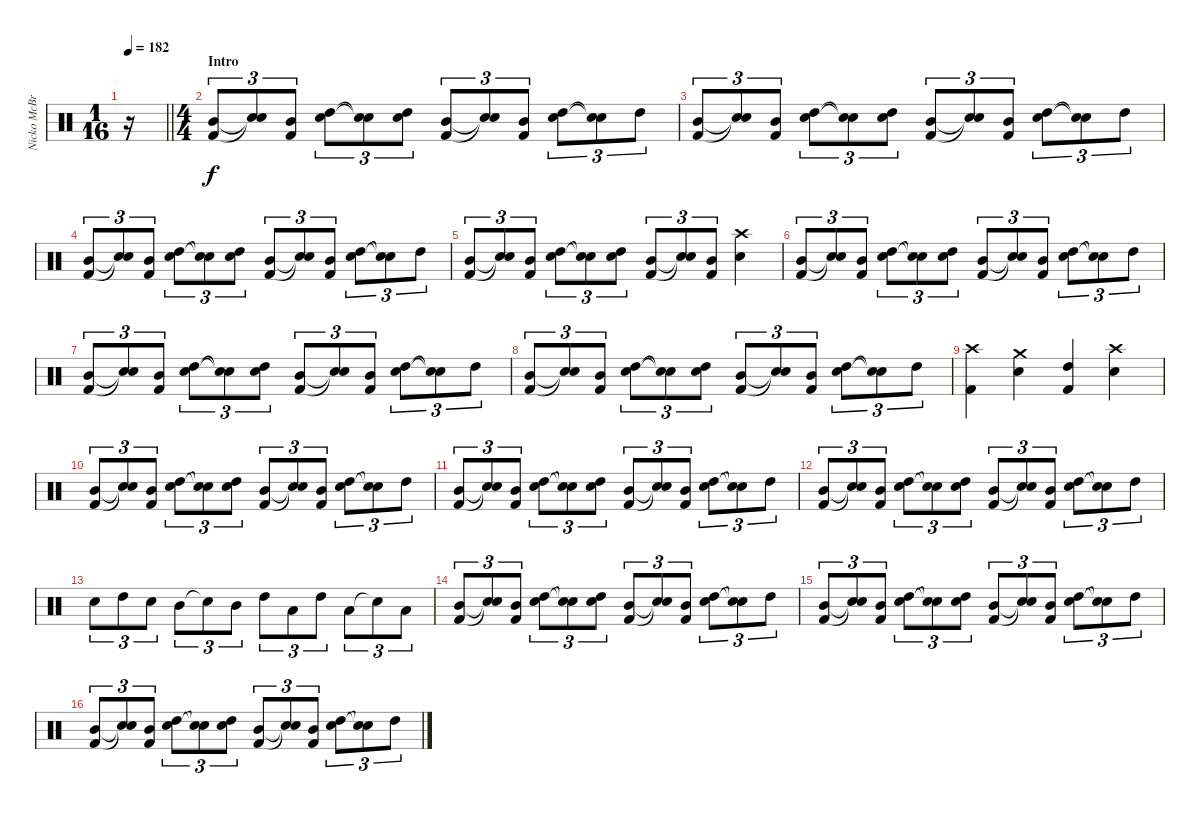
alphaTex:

\track ("Nicko McBrain" "Nicko McBr") {instrument percussion}
\staff {score}
\articulation defaults
\ts (1 16)
\tempo 182
\clef neutral
\barLineRight lightlight
\ks c
r.16{dy f} |
\ts (4 4)
\section ("" "Intro")
("Mid Tom (hit)" "Kick (hit) 2").8{tu (3 2)} ("Snare (hit)"{t} "Snare (hit)"{t}).8{tu (3 2)} ("Mid Tom (hit)" "Kick (hit) 2").8{tu (3 2)} ("High Tom (hit)" "Snare (hit) 2").8{tu (3 2)} ("Snare (hit)"{t} "Snare (hit)"{t}).8{tu (3 2)} ("High Tom (hit)" "Snare (hit) 2").8{tu (3 2)} ("Mid Tom (hit)" "Kick (hit) 2").8{tu (3 2)} ("Snare (hit)"{t} "Snare (hit)"{t}).8{tu (3 2)} ("Mid Tom (hit)" "Kick (hit) 2").8{tu (3 2)} ("High Tom (hit)" "Snare (hit) 2").8{tu (3 2)} ("Snare (hit)"{t} "Snare (hit)"{t}).8{tu (3 2)} "High Tom (hit)".8{tu (3 2)} |
("Mid Tom (hit)" "Kick (hit) 2").8{tu (3 2)} ("Snare (hit)"{t} "Snare (hit)"{t}).8{tu (3 2)} ("Mid Tom (hit)" "Kick (hit) 2").8{tu (3 2)} ("High Tom (hit)" "Snare (hit) 2").8{tu (3 2)} ("Snare (hit)"{t} "Snare (hit)"{t}).8{tu (3 2)} ("High Tom (hit)" "Snare (hit) 2").8{tu (3 2)} ("Mid Tom (hit)" "Kick (hit) 2").8{tu (3 2)} ("Snare (hit)"{t} "Snare (hit)"{t}).8{tu (3 2)} ("Mid Tom (hit)" "Kick (hit) 2").8{tu (3 2)} ("High Tom (hit)" "Snare (hit) 2").8{tu (3 2)} ("Snare (hit)"{t} "Snare (hit)"{t}).8{tu (3 2)} "High Tom (hit)".8{tu (3 2)} |
("Mid Tom (hit)" "Kick (hit) 2").8{tu (3 2)} ("Snare (hit)"{t} "Snare (hit)"{t}).8{tu (3 2)} ("Mid Tom (hit)" "Kick (hit) 2").8{tu (3 2)} ("High Tom (hit)" "Snare (hit) 2").8{tu (3 2)} ("Snare (hit)"{t} "Snare (hit)"{t}).8{tu (3 2)} ("High Tom (hit)" "Snare (hit) 2").8{tu (3 2)} ("Mid Tom (hit)" "Kick (hit) 2").8{tu (3 2)} ("Snare (hit)"{t} "Snare (hit)"{t}).8{tu (3 2)} ("Mid Tom (hit)" "Kick (hit) 2").8{tu (3 2)} ("High Tom (hit)" "Snare (hit) 2").8{tu (3 2)} ("Snare (hit)"{t} "Snare (hit)"{t}).8{tu (3 2)} "High Tom (hit)".8{tu (3 2)} |
("Mid Tom (hit)" "Kick (hit) 2").8{tu (3 2)} ("Snare (hit)"{t} "Snare (hit)"{t}).8{tu (3 2)} ("Mid Tom (hit)" "Kick (hit) 2").8{tu (3 2)} ("High Tom (hit)" "Snare (hit) 2").8{tu (3 2)} ("Snare (hit)"{t} "Snare (hit)"{t}).8{tu (3 2)} ("High Tom (hit)" "Snare (hit) 2").8{tu (3 2)} ("Mid Tom (hit)" "Kick (hit) 2").8{tu (3 2)} ("Snare (hit)"{t} "Snare (hit)"{t}).8{tu (3 2)} ("Mid Tom (hit)" "Kick (hit) 2").8{tu (3 2)} ("Snare (hit) 2" "Crash high (hit)").4 |
("Mid Tom (hit)" "Kick (hit) 2").8{tu (3 2)} ("Snare (hit)"{t} "Snare (hit)"{t}).8{tu (3 2)} ("Mid Tom (hit)" "Kick (hit) 2").8{tu (3 2)} ("High Tom (hit)" "Snare (hit) 2").8{tu (3 2)} ("Snare (hit)"{t} "Snare (hit)"{t}).8{tu (3 2)} ("High Tom (hit)" "Snare (hit) 2").8{tu (3 2)} ("Mid Tom (hit)" "Kick (hit) 2").8{tu (3 2)} ("Snare (hit)"{t} "Snare (hit)"{t}).8{tu (3 2)} ("Mid Tom (hit)" "Kick (hit) 2").8{tu (3 2)} ("High Tom (hit)" "Snare (hit) 2").8{tu (3 2)} ("Snare (hit)"{t} "Snare (hit)"{t}).8{tu (3 2)} "High Tom (hit)".8{tu (3 2)} |
("Mid Tom (hit)" "Kick (hit) 2").8{tu (3 2)} ("Snare (hit)"{t} "Snare (hit)"{t}).8{tu (3 2)} ("Mid Tom (hit)" "Kick (hit) 2").8{tu (3 2)} ("High Tom (hit)" "Snare (hit) 2").8{tu (3 2)} ("Snare (hit)"{t} "Snare (hit)"{t}).8{tu (3 2)} ("High Tom (hit)" "Snare (hit) 2").8{tu (3 2)} ("Mid Tom (hit)" "Kick (hit) 2").8{tu (3 2)} ("Snare (hit)"{t} "Snare (hit)"{t}).8{tu (3 2)} ("Mid Tom (hit)" "Kick (hit) 2").8{tu (3 2)} ("High Tom (hit)" "Snare (hit) 2").8{tu (3 2)} ("Snare (hit)"{t} "Snare (hit)"{t}).8{tu (3 2)} "High Tom (hit)".8{tu (3 2)} |
("Mid Tom (hit)" "Kick (hit) 2").8{tu (3 2)} ("Snare (hit)"{t} "Snare (hit)"{t}).8{tu (3 2)} ("Mid Tom (hit)" "Kick (hit) 2").8{tu (3 2)} ("High Tom (hit)" "Snare (hit) 2").8{tu (3 2)} ("Snare (hit)"{t} "Snare (hit)"{t}).8{tu (3 2)} ("High Tom (hit)" "Snare (hit) 2").8{tu (3 2)} ("Mid Tom (hit)" "Kick (hit) 2").8{tu (3 2)} ("Snare (hit)"{t} "Snare (hit)"{t}).8{tu (3 2)} ("Mid Tom (hit)" "Kick (hit) 2").8{tu (3 2)} ("High Tom (hit)" "Snare (hit) 2").8{tu (3 2)} ("Snare (hit)"{t} "Snare (hit)"{t}).8{tu (3 2)} "High Tom (hit)".8{tu (3 2)} |
("Kick (hit) 2" "Crash high (hit)").4 ("Snare (hit) 2" "Crash medium (hit)").4 ("High Tom (hit)" "Kick (hit) 2").4 ("Snare (hit) 2" "Crash high (hit)").4 |
("Mid Tom (hit)" "Kick (hit) 2").8{tu (3 2)} ("Snare (hit)"{t} "Snare (hit)"{t}).8{tu (3 2)} ("Mid Tom (hit)" "Kick (hit) 2").8{tu (3 2)} ("High Tom (hit)" "Snare (hit) 2").8{tu (3 2)} ("Snare (hit)"{t} "Snare (hit)"{t}).8{tu (3 2)} ("High Tom (hit)" "Snare (hit) 2").8{tu (3 2)} ("Mid Tom (hit)" "Kick (hit) 2").8{tu (3 2)} ("Snare (hit)"{t} "Snare (hit)"{t}).8{tu (3 2)} ("Mid Tom (hit)" "Kick (hit) 2").8{tu (3 2)} ("High Tom (hit)" "Snare (hit) 2").8{tu (3 2)} ("Snare (hit)"{t} "Snare (hit)"{t}).8{tu (3 2)} "High Tom (hit)".8{tu (3 2)} |
("Mid Tom (hit)" "Kick (hit) 2").8{tu (3 2)} ("Snare (hit)"{t} "Snare (hit)"{t}).8{tu (3 2)} ("Mid Tom (hit)" "Kick (hit) 2").8{tu (3 2)} ("High Tom (hit)" "Snare (hit) 2").8{tu (3 2)} ("Snare (hit)"{t} "Snare (hit)"{t}).8{tu (3 2)} ("High Tom (hit)" "Snare (hit) 2").8{tu (3 2)} ("Mid Tom (hit)" "Kick (hit) 2").8{tu (3 2)} ("Snare (hit)"{t} "Snare (hit)"{t}).8{tu (3 2)} ("Mid Tom (hit)" "Kick (hit) 2").8{tu (3 2)} ("High Tom (hit)" "Snare (hit) 2").8{tu (3 2)} ("Snare (hit)"{t} "Snare (hit)"{t}).8{tu (3 2)} "High Tom (hit)".8{tu (3 2)} |
("Mid Tom (hit)" "Kick (hit) 2").8{tu (3 2)} ("Snare (hit)"{t} "Snare (hit)"{t}).8{tu (3 2)} ("Mid Tom (hit)" "Kick (hit) 2").8{tu (3 2)} ("High Tom (hit)" "Snare (hit) 2").8{tu (3 2)} ("Snare (hit)"{t} "Snare (hit)"{t}).8{tu (3 2)} ("High Tom (hit)" "Snare (hit) 2").8{tu (3 2)} ("Mid Tom (hit)" "Kick (hit) 2").8{tu (3 2)} ("Snare (hit)"{t} "Snare (hit)"{t}).8{tu (3 2)} ("Mid Tom (hit)" "Kick (hit) 2").8{tu (3 2)} ("High Tom (hit)" "Snare (hit) 2").8{tu (3 2)} ("Snare (hit)"{t} "Snare (hit)"{t}).8{tu (3 2)} "High Tom (hit)".8{tu (3 2)} |
"Snare (hit) 2".8{tu (3 2)} "High Tom (hit)".8{tu (3 2)} "Snare (hit) 2".8{tu (3 2)} "Mid Tom (hit)".8{tu (3 2)} "Snare (hit)"{t}.8{tu (3 2)} "Mid Tom (hit)".8{tu (3 2)} "High Tom (hit)".8{tu (3 2)} "Low Tom (hit)".8{tu (3 2)} "High Tom (hit)".8{tu (3 2)} "Low Tom (hit)".8{tu (3 2)} "Snare (hit)"{t}.8{tu (3 2)} "Low Tom (hit)".8{tu (3 2)} |
("Mid Tom (hit)" "Kick (hit) 2").8{tu (3 2)} ("Snare (hit)"{t} "Snare (hit)"{t}).8{tu (3 2)} ("Mid Tom (hit)" "Kick (hit) 2").8{tu (3 2)} ("High Tom (hit)" "Snare (hit) 2").8{tu (3 2)} ("Snare (hit)"{t} "Snare (hit)"{t}).8{tu (3 2)} ("High Tom (hit)" "Snare (hit) 2").8{tu (3 2)} ("Mid Tom (hit)" "Kick (hit) 2").8{tu (3 2)} ("Snare (hit)"{t} "Snare (hit)"{t}).8{tu (3 2)} ("Mid Tom (hit)" "Kick (hit) 2").8{tu (3 2)} ("High Tom (hit)" "Snare (hit) 2").8{tu (3 2)} ("Snare (hit)"{t} "Snare (hit)"{t}).8{tu (3 2)} "High Tom (hit)".8{tu (3 2)} |
("Mid Tom (hit)" "Kick (hit) 2").8{tu (3 2)} ("Snare (hit)"{t} "Snare (hit)"{t}).8{tu (3 2)} ("Mid Tom (hit)" "Kick (hit) 2").8{tu (3 2)} ("High Tom (hit)" "Snare (hit) 2").8{tu (3 2)} ("Snare (hit)"{t} "Snare (hit)"{t}).8{tu (3 2)} ("High Tom (hit)" "Snare (hit) 2").8{tu (3 2)} ("Mid Tom (hit)" "Kick (hit) 2").8{tu (3 2)} ("Snare (hit)"{t} "Snare (hit)"{t}).8{tu (3 2)} ("Mid Tom (hit)" "Kick (hit) 2").8{tu (3 2)} ("High Tom (hit)" "Snare (hit) 2").8{tu (3 2)} ("Snare (hit)"{t} "Snare (hit)"{t}).8{tu (3 2)} "High Tom (hit)".8{tu (3 2)} |
("Mid Tom (hit)" "Kick (hit) 2").8{tu (3 2)} ("Snare (hit)"{t} "Snare (hit)"{t}).8{tu (3 2)} ("Mid Tom (hit)" "Kick (hit) 2").8{tu (3 2)} ("High Tom (hit)" "Snare (hit) 2").8{tu (3 2)} ("Snare (hit)"{t} "Snare (hit)"{t}).8{tu (3 2)} ("High Tom (hit)" "Snare (hit) 2").8{tu (3 2)} ("Mid Tom (hit)" "Kick (hit) 2").8{tu (3 2)} ("Snare (hit)"{t} "Snare (hit)"{t}).8{tu (3 2)} ("Mid Tom (hit)" "Kick (hit) 2").8{tu (3 2)} ("High Tom (hit)" "Snare (hit) 2").8{tu (3 2)} ("Snare (hit)"{t} "Snare (hit)"{t}).8{tu (3 2)} "High Tom (hit)".8{tu (3 2)}
